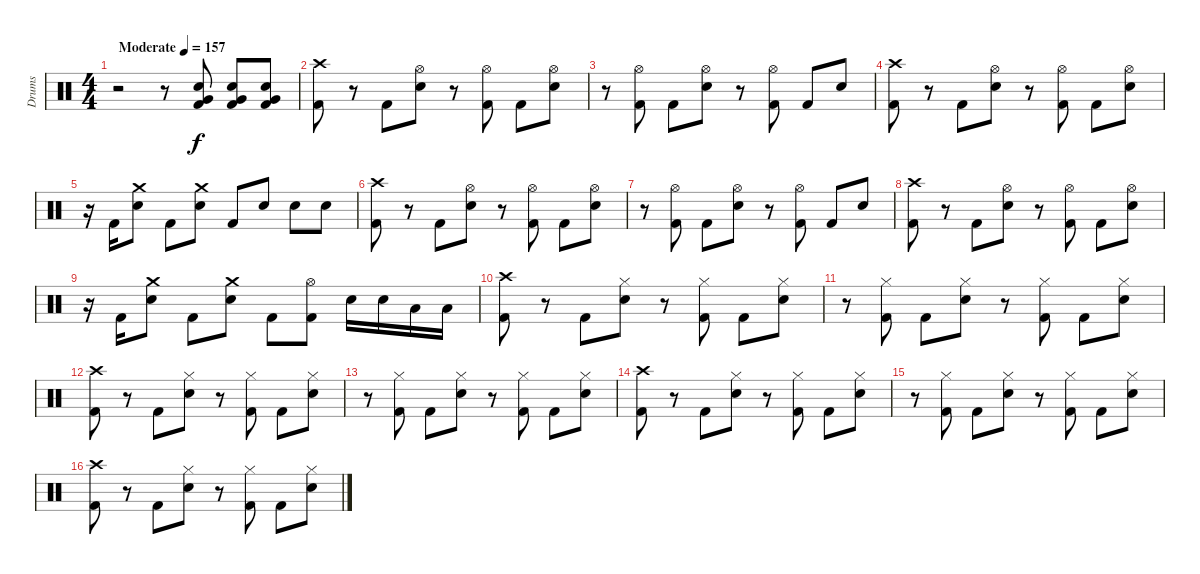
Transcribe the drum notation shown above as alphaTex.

\track ("Drums" "Drums") {instrument percussion}
\staff {score}
\articulation defaults
\ts (4 4)
\tempo (157 "Moderate")
\clef neutral
\ks c
r.2{dy f} r.8 ("Very Low Tom (hit)" "Electric Snare (hit)" "Kick (hit) 2").8 ("Very Low Tom (hit)" "Electric Snare (hit)" "Kick (hit) 2").8 ("Very Low Tom (hit)" "Electric Snare (hit)" "Kick (hit) 2").8 |
("Crash high (hit)" "Kick (hit) 2").8 r.8 "Kick (hit) 2".8 ("Hi-Hat (open)" "Electric Snare (hit)").8 r.8 ("Hi-Hat (open)" "Kick (hit) 2").8 "Kick (hit) 2".8 ("Hi-Hat (open)" "Electric Snare (hit)").8 |
r.8 ("Hi-Hat (open)" "Kick (hit) 2").8 "Kick (hit) 2".8 ("Hi-Hat (open)" "Electric Snare (hit)").8 r.8 ("Hi-Hat (open)" "Kick (hit) 2").8 "Kick (hit) 2".8 "Electric Snare (hit)".8 |
("Crash high (hit)" "Kick (hit) 2").8 r.8 "Kick (hit) 2".8 ("Hi-Hat (open)" "Electric Snare (hit)").8 r.8 ("Hi-Hat (open)" "Kick (hit) 2").8 "Kick (hit) 2".8 ("Hi-Hat (open)" "Electric Snare (hit)").8 |
r.16 "Kick (hit) 2".16 ("Crash medium (hit)" "Electric Snare (hit)").8 "Kick (hit) 2".8 ("Crash medium (hit)" "Electric Snare (hit)").8 "Kick (hit) 2".8 "Electric Snare (hit)".8 "Electric Snare (hit)".8 "Electric Snare (hit)".8 |
("Crash high (hit)" "Kick (hit) 2").8 r.8 "Kick (hit) 2".8 ("Hi-Hat (open)" "Electric Snare (hit)").8 r.8 ("Hi-Hat (open)" "Kick (hit) 2").8 "Kick (hit) 2".8 ("Hi-Hat (open)" "Electric Snare (hit)").8 |
r.8 ("Hi-Hat (open)" "Kick (hit) 2").8 "Kick (hit) 2".8 ("Hi-Hat (open)" "Electric Snare (hit)").8 r.8 ("Hi-Hat (open)" "Kick (hit) 2").8 "Kick (hit) 2".8 "Electric Snare (hit)".8 |
("Crash high (hit)" "Kick (hit) 2").8 r.8 "Kick (hit) 2".8 ("Hi-Hat (open)" "Electric Snare (hit)").8 r.8 ("Hi-Hat (open)" "Kick (hit) 2").8 "Kick (hit) 2".8 ("Hi-Hat (open)" "Electric Snare (hit)").8 |
r.16 "Kick (hit) 2".16 ("Crash medium (hit)" "Electric Snare (hit)").8 "Kick (hit) 2".8 ("Crash medium (hit)" "Electric Snare (hit)").8 "Kick (hit) 2".8 ("Hi-Hat (open)" "Kick (hit) 2").8 "Electric Snare (hit)".16 "Electric Snare (hit)".16 "Low Tom (hit)".16 "Low Tom (hit)".16 |
("Crash high (hit)" "Kick (hit) 2").8 r.8 "Kick (hit) 2".8 ("Hi-Hat (closed)" "Electric Snare (hit)").8 r.8 ("Hi-Hat (closed)" "Kick (hit) 2").8 "Kick (hit) 2".8 ("Hi-Hat (closed)" "Electric Snare (hit)").8 |
r.8 ("Hi-Hat (closed)" "Kick (hit) 2").8 "Kick (hit) 2".8 ("Hi-Hat (closed)" "Electric Snare (hit)").8 r.8 ("Hi-Hat (closed)" "Kick (hit) 2").8 "Kick (hit) 2".8 ("Hi-Hat (closed)" "Electric Snare (hit)").8 |
("Crash high (hit)" "Kick (hit) 2").8 r.8 "Kick (hit) 2".8 ("Hi-Hat (closed)" "Electric Snare (hit)").8 r.8 ("Hi-Hat (closed)" "Kick (hit) 2").8 "Kick (hit) 2".8 ("Hi-Hat (closed)" "Electric Snare (hit)").8 |
r.8 ("Hi-Hat (closed)" "Kick (hit) 2").8 "Kick (hit) 2".8 ("Hi-Hat (closed)" "Electric Snare (hit)").8 r.8 ("Hi-Hat (closed)" "Kick (hit) 2").8 "Kick (hit) 2".8 ("Hi-Hat (closed)" "Electric Snare (hit)").8 |
("Crash high (hit)" "Kick (hit) 2").8 r.8 "Kick (hit) 2".8 ("Hi-Hat (closed)" "Electric Snare (hit)").8 r.8 ("Hi-Hat (closed)" "Kick (hit) 2").8 "Kick (hit) 2".8 ("Hi-Hat (closed)" "Electric Snare (hit)").8 |
r.8 ("Hi-Hat (closed)" "Kick (hit) 2").8 "Kick (hit) 2".8 ("Hi-Hat (closed)" "Electric Snare (hit)").8 r.8 ("Hi-Hat (closed)" "Kick (hit) 2").8 "Kick (hit) 2".8 ("Hi-Hat (closed)" "Electric Snare (hit)").8 |
("Crash high (hit)" "Kick (hit) 2").8 r.8 "Kick (hit) 2".8 ("Hi-Hat (closed)" "Electric Snare (hit)").8 r.8 ("Hi-Hat (closed)" "Kick (hit) 2").8 "Kick (hit) 2".8 ("Hi-Hat (closed)" "Electric Snare (hit)").8
